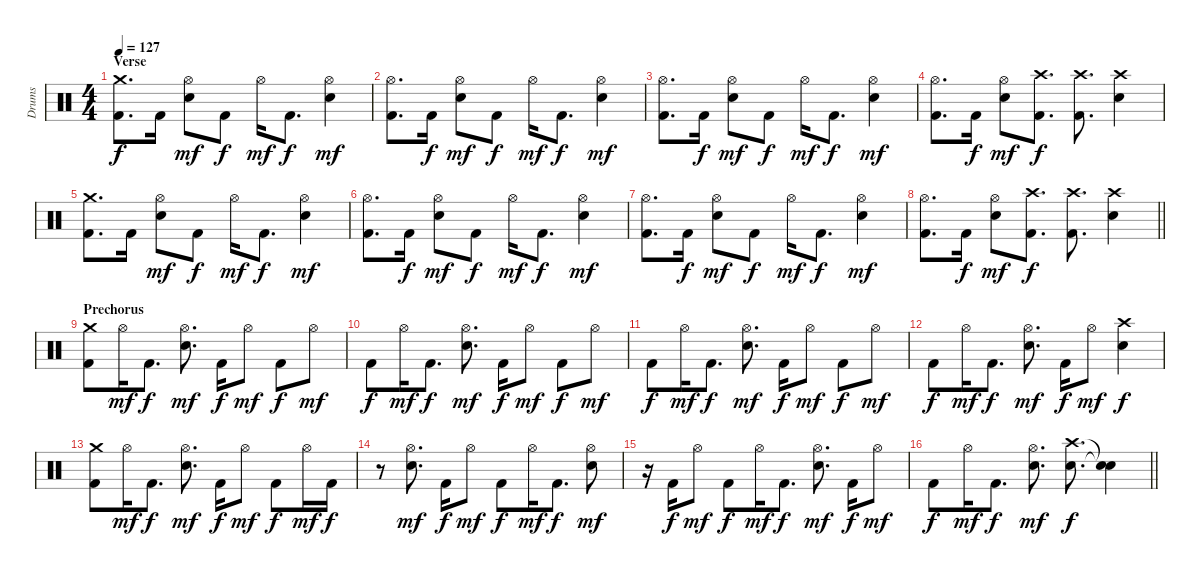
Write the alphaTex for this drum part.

\track ("Drums" "Drums") {instrument percussion}
\staff {score}
\articulation defaults
\ts (4 4)
\section ("" "Verse")
\tempo 127
\clef neutral
\ks c
("Kick (hit) 2" "Crash medium (hit)").8{d dy f} "Kick (hit) 2".16 ("Hi-Hat (open)" "Electric Snare (hit)").8{dy mf} "Kick (hit) 2".8{dy f} "Hi-Hat (open)".16{dy mf} "Kick (hit) 2".8{d dy f} ("Hi-Hat (open)" "Electric Snare (hit)").4{dy mf} |
("Kick (hit) 2" "Hi-Hat (open)").8{d} "Kick (hit) 2".16{dy f} ("Hi-Hat (open)" "Electric Snare (hit)").8{dy mf} "Kick (hit) 2".8{dy f} "Hi-Hat (open)".16{dy mf} "Kick (hit) 2".8{d dy f} ("Hi-Hat (open)" "Electric Snare (hit)").4{dy mf} |
("Kick (hit) 2" "Hi-Hat (open)").8{d} "Kick (hit) 2".16{dy f} ("Hi-Hat (open)" "Electric Snare (hit)").8{dy mf} "Kick (hit) 2".8{dy f} "Hi-Hat (open)".16{dy mf} "Kick (hit) 2".8{d dy f} ("Hi-Hat (open)" "Electric Snare (hit)").4{dy mf} |
("Kick (hit) 2" "Hi-Hat (open)").8{d} "Kick (hit) 2".16{dy f} ("Hi-Hat (open)" "Electric Snare (hit)").8{dy mf} ("Kick (hit) 2" "Crash high (hit)").8{d dy f} ("Kick (hit) 2" "Crash high (hit)").8{d} ("Crash high (hit)" "Electric Snare (hit)").4 |
("Kick (hit) 2" "Crash medium (hit)").8{d} "Kick (hit) 2".16 ("Hi-Hat (open)" "Electric Snare (hit)").8{dy mf} "Kick (hit) 2".8{dy f} "Hi-Hat (open)".16{dy mf} "Kick (hit) 2".8{d dy f} ("Hi-Hat (open)" "Electric Snare (hit)").4{dy mf} |
("Kick (hit) 2" "Hi-Hat (open)").8{d} "Kick (hit) 2".16{dy f} ("Hi-Hat (open)" "Electric Snare (hit)").8{dy mf} "Kick (hit) 2".8{dy f} "Hi-Hat (open)".16{dy mf} "Kick (hit) 2".8{d dy f} ("Hi-Hat (open)" "Electric Snare (hit)").4{dy mf} |
("Kick (hit) 2" "Hi-Hat (open)").8{d} "Kick (hit) 2".16{dy f} ("Hi-Hat (open)" "Electric Snare (hit)").8{dy mf} "Kick (hit) 2".8{dy f} "Hi-Hat (open)".16{dy mf} "Kick (hit) 2".8{d dy f} ("Hi-Hat (open)" "Electric Snare (hit)").4{dy mf} |
\barLineRight lightlight
("Kick (hit) 2" "Hi-Hat (open)").8{d} "Kick (hit) 2".16{dy f} ("Hi-Hat (open)" "Electric Snare (hit)").8{dy mf} ("Kick (hit) 2" "Crash high (hit)").8{d dy f} ("Kick (hit) 2" "Crash high (hit)").8{d} ("Crash high (hit)" "Electric Snare (hit)").4 |
\section ("" "Prechorus")
("Kick (hit) 2" "Crash medium (hit)").8 "Hi-Hat (open)".16{dy mf} "Kick (hit) 2".8{d dy f} ("Hi-Hat (open)" "Electric Snare (hit)").8{d dy mf} "Kick (hit) 2".16{dy f} "Hi-Hat (open)".8{dy mf} "Kick (hit) 2".8{dy f} "Hi-Hat (open)".8{dy mf} |
"Kick (hit) 2".8{dy f} "Hi-Hat (open)".16{dy mf} "Kick (hit) 2".8{d dy f} ("Hi-Hat (open)" "Electric Snare (hit)").8{d dy mf} "Kick (hit) 2".16{dy f} "Hi-Hat (open)".8{dy mf} "Kick (hit) 2".8{dy f} "Hi-Hat (open)".8{dy mf} |
"Kick (hit) 2".8{dy f} "Hi-Hat (open)".16{dy mf} "Kick (hit) 2".8{d dy f} ("Hi-Hat (open)" "Electric Snare (hit)").8{d dy mf} "Kick (hit) 2".16{dy f} "Hi-Hat (open)".8{dy mf} "Kick (hit) 2".8{dy f} "Hi-Hat (open)".8{dy mf} |
"Kick (hit) 2".8{dy f} "Hi-Hat (open)".16{dy mf} "Kick (hit) 2".8{d dy f} ("Hi-Hat (open)" "Electric Snare (hit)").8{d dy mf} "Kick (hit) 2".16{dy f} "Hi-Hat (open)".8{dy mf} ("Crash high (hit)" "Electric Snare (hit)").4{dy f} |
("Kick (hit) 2" "Crash medium (hit)").8 "Hi-Hat (open)".16{dy mf} "Kick (hit) 2".8{d dy f} ("Hi-Hat (open)" "Electric Snare (hit)").8{d dy mf} "Kick (hit) 2".16{dy f} "Hi-Hat (open)".8{dy mf} "Kick (hit) 2".8{dy f} "Hi-Hat (open)".16{dy mf} "Kick (hit) 2".16{dy f} |
r.8 ("Hi-Hat (open)" "Electric Snare (hit)").8{d dy mf} "Kick (hit) 2".16{dy f} "Hi-Hat (open)".8{dy mf} "Kick (hit) 2".8{dy f} "Hi-Hat (open)".16{dy mf} "Kick (hit) 2".8{d dy f} ("Hi-Hat (open)" "Electric Snare (hit)").8{dy mf} |
r.16 "Kick (hit) 2".16{dy f} "Hi-Hat (open)".8{dy mf} "Kick (hit) 2".8{dy f} "Hi-Hat (open)".16{dy mf} "Kick (hit) 2".8{d dy f} ("Hi-Hat (open)" "Electric Snare (hit)").8{d dy mf} "Kick (hit) 2".16{dy f} "Hi-Hat (open)".8{dy mf} |
\barLineRight lightlight "Kick (hit) 2".8{dy f} "Hi-Hat (open)".16{dy mf} "Kick (hit) 2".8{d dy f}
("Hi-Hat (open)" "Electric Snare (hit)").8{d dy mf} ("Crash high (hit)" "Electric Snare (hit)").8{d dy f} ("Snare (hit)"{t} "Snare (hit)"{t}).4
